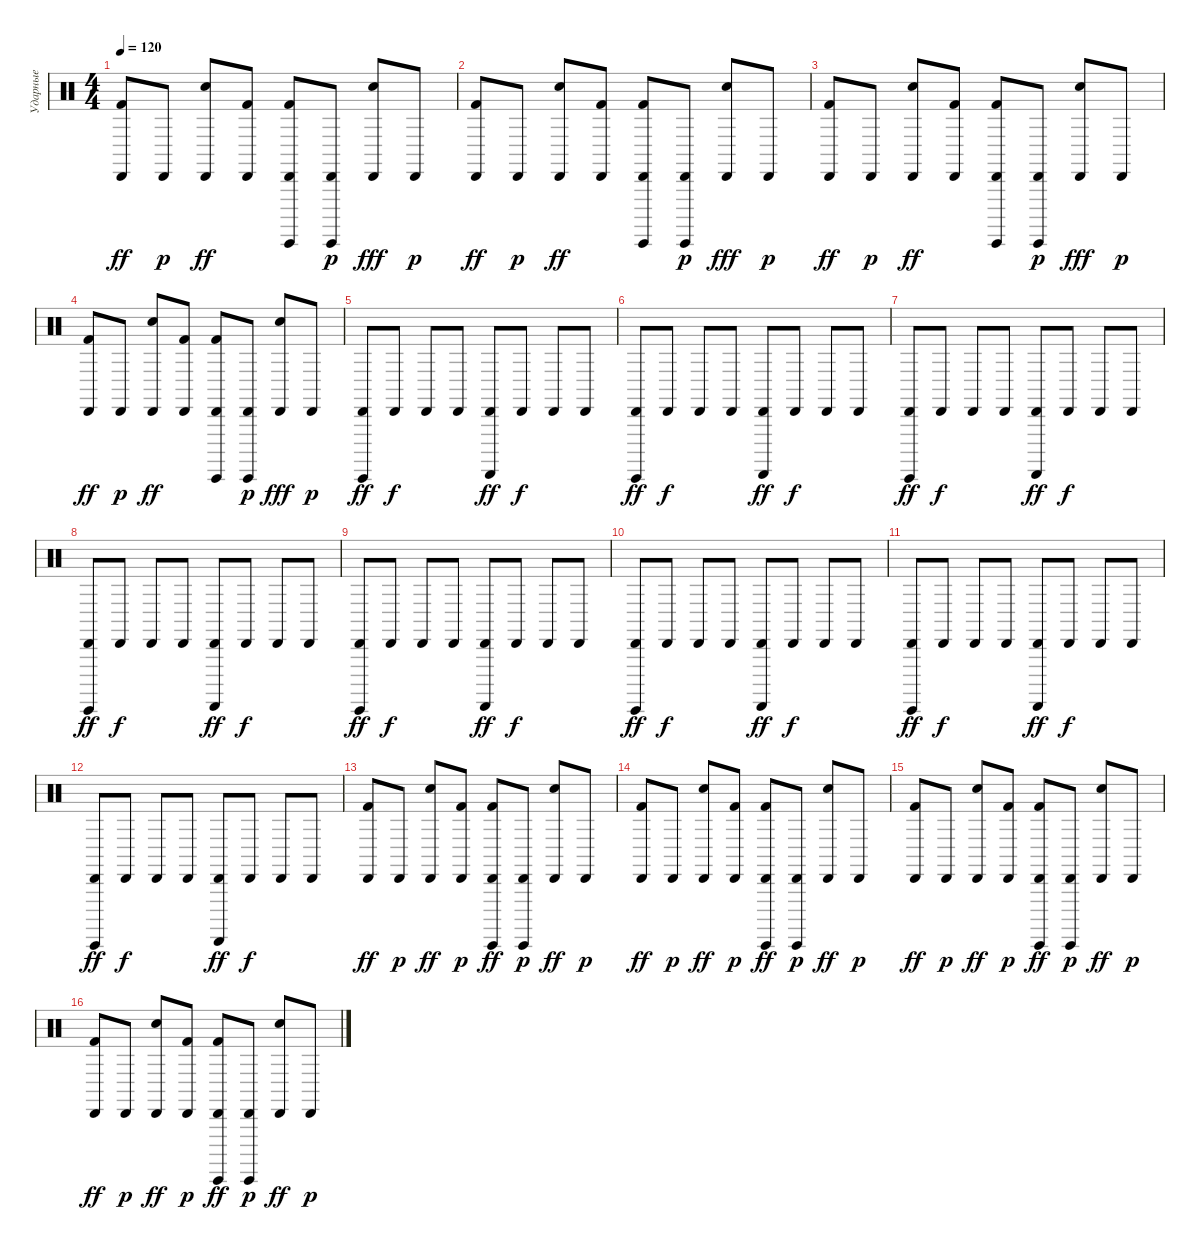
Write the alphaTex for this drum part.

\track ("Ударные" "Ударные") {instrument percussion}
\staff {score}
\articulation defaults
\ts (4 4)
\tempo 120
\clef neutral
\ks c
("Cabasa (hit)" "Kick (hit) 2").8{dy ff} "Cabasa (hit)".8{dy p} ("Cabasa (hit)" "Snare (hit) 2").8{dy ff} ("Cabasa (hit)" "Kick (hit) 2").8 ("Cabasa (hit)" "Guiro (hit)" "Kick (hit) 2").8 ("Cabasa (hit)" "Guiro (hit)").8{dy p} ("Cabasa (hit)" "Snare (hit) 2").8{dy fff} "Cabasa (hit)".8{dy p} |
("Cabasa (hit)" "Kick (hit) 2").8{dy ff} "Cabasa (hit)".8{dy p} ("Cabasa (hit)" "Snare (hit) 2").8{dy ff} ("Cabasa (hit)" "Kick (hit) 2").8 ("Cabasa (hit)" "Guiro (hit)" "Kick (hit) 2").8 ("Cabasa (hit)" "Guiro (hit)").8{dy p} ("Cabasa (hit)" "Snare (hit) 2").8{dy fff} "Cabasa (hit)".8{dy p} |
("Cabasa (hit)" "Kick (hit) 2").8{dy ff} "Cabasa (hit)".8{dy p} ("Cabasa (hit)" "Snare (hit) 2").8{dy ff} ("Cabasa (hit)" "Kick (hit) 2").8 ("Cabasa (hit)" "Guiro (hit)" "Kick (hit) 2").8 ("Cabasa (hit)" "Guiro (hit)").8{dy p} ("Cabasa (hit)" "Snare (hit) 2").8{dy fff} "Cabasa (hit)".8{dy p} |
("Cabasa (hit)" "Kick (hit) 2").8{dy ff} "Cabasa (hit)".8{dy p} ("Cabasa (hit)" "Snare (hit) 2").8{dy ff} ("Cabasa (hit)" "Kick (hit) 2").8 ("Cabasa (hit)" "Guiro (hit)" "Kick (hit) 2").8 ("Cabasa (hit)" "Guiro (hit)").8{dy p} ("Cabasa (hit)" "Snare (hit) 2").8{dy fff} "Cabasa (hit)".8{dy p} |
("Cabasa (hit)" "Guiro (hit)").8{dy ff} "Cabasa (hit)".8{dy f} "Cabasa (hit)".8 "Cabasa (hit)".8 ("Cabasa (hit)" "Guiro (scrap-return)").8{dy ff} "Cabasa (hit)".8{dy f} "Cabasa (hit)".8 "Cabasa (hit)".8 |
("Cabasa (hit)" "Guiro (hit)").8{dy ff} "Cabasa (hit)".8{dy f} "Cabasa (hit)".8 "Cabasa (hit)".8 ("Cabasa (hit)" "Guiro (scrap-return)").8{dy ff} "Cabasa (hit)".8{dy f} "Cabasa (hit)".8 "Cabasa (hit)".8 |
("Cabasa (hit)" "Guiro (hit)").8{dy ff} "Cabasa (hit)".8{dy f} "Cabasa (hit)".8 "Cabasa (hit)".8 ("Cabasa (hit)" "Guiro (scrap-return)").8{dy ff} "Cabasa (hit)".8{dy f} "Cabasa (hit)".8 "Cabasa (hit)".8 |
("Cabasa (hit)" "Guiro (hit)").8{dy ff} "Cabasa (hit)".8{dy f} "Cabasa (hit)".8 "Cabasa (hit)".8 ("Cabasa (hit)" "Guiro (scrap-return)").8{dy ff} "Cabasa (hit)".8{dy f} "Cabasa (hit)".8 "Cabasa (hit)".8 |
("Cabasa (hit)" "Guiro (hit)").8{dy ff} "Cabasa (hit)".8{dy f} "Cabasa (hit)".8 "Cabasa (hit)".8 ("Cabasa (hit)" "Guiro (scrap-return)").8{dy ff} "Cabasa (hit)".8{dy f} "Cabasa (hit)".8 "Cabasa (hit)".8 |
("Cabasa (hit)" "Guiro (hit)").8{dy ff} "Cabasa (hit)".8{dy f} "Cabasa (hit)".8 "Cabasa (hit)".8 ("Cabasa (hit)" "Guiro (scrap-return)").8{dy ff} "Cabasa (hit)".8{dy f} "Cabasa (hit)".8 "Cabasa (hit)".8 |
("Cabasa (hit)" "Guiro (hit)").8{dy ff} "Cabasa (hit)".8{dy f} "Cabasa (hit)".8 "Cabasa (hit)".8 ("Cabasa (hit)" "Guiro (scrap-return)").8{dy ff} "Cabasa (hit)".8{dy f} "Cabasa (hit)".8 "Cabasa (hit)".8 |
("Cabasa (hit)" "Guiro (hit)").8{dy ff} "Cabasa (hit)".8{dy f} "Cabasa (hit)".8 "Cabasa (hit)".8 ("Cabasa (hit)" "Guiro (scrap-return)").8{dy ff} "Cabasa (hit)".8{dy f} "Cabasa (hit)".8 "Cabasa (hit)".8 |
("Cabasa (hit)" "Kick (hit) 2").8{dy ff} "Cabasa (hit)".8{dy p} ("Cabasa (hit)" "Snare (hit) 2").8{dy ff} ("Cabasa (hit)" "Kick (hit) 2").8{dy p} ("Cabasa (hit)" "Guiro (hit)" "Kick (hit) 2").8{dy ff} ("Cabasa (hit)" "Guiro (hit)").8{dy p} ("Cabasa (hit)" "Snare (hit) 2").8{dy ff} "Cabasa (hit)".8{dy p} |
("Cabasa (hit)" "Kick (hit) 2").8{dy ff} "Cabasa (hit)".8{dy p} ("Cabasa (hit)" "Snare (hit) 2").8{dy ff} ("Cabasa (hit)" "Kick (hit) 2").8{dy p} ("Cabasa (hit)" "Guiro (hit)" "Kick (hit) 2").8{dy ff} ("Cabasa (hit)" "Guiro (hit)").8{dy p} ("Cabasa (hit)" "Snare (hit) 2").8{dy ff} "Cabasa (hit)".8{dy p} |
("Cabasa (hit)" "Kick (hit) 2").8{dy ff} "Cabasa (hit)".8{dy p} ("Cabasa (hit)" "Snare (hit) 2").8{dy ff} ("Cabasa (hit)" "Kick (hit) 2").8{dy p} ("Cabasa (hit)" "Guiro (hit)" "Kick (hit) 2").8{dy ff} ("Cabasa (hit)" "Guiro (hit)").8{dy p} ("Cabasa (hit)" "Snare (hit) 2").8{dy ff} "Cabasa (hit)".8{dy p} |
("Cabasa (hit)" "Kick (hit) 2").8{dy ff} "Cabasa (hit)".8{dy p} ("Cabasa (hit)" "Snare (hit) 2").8{dy ff} ("Cabasa (hit)" "Kick (hit) 2").8{dy p} ("Cabasa (hit)" "Guiro (hit)" "Kick (hit) 2").8{dy ff} ("Cabasa (hit)" "Guiro (hit)").8{dy p} ("Cabasa (hit)" "Snare (hit) 2").8{dy ff} "Cabasa (hit)".8{dy p}
